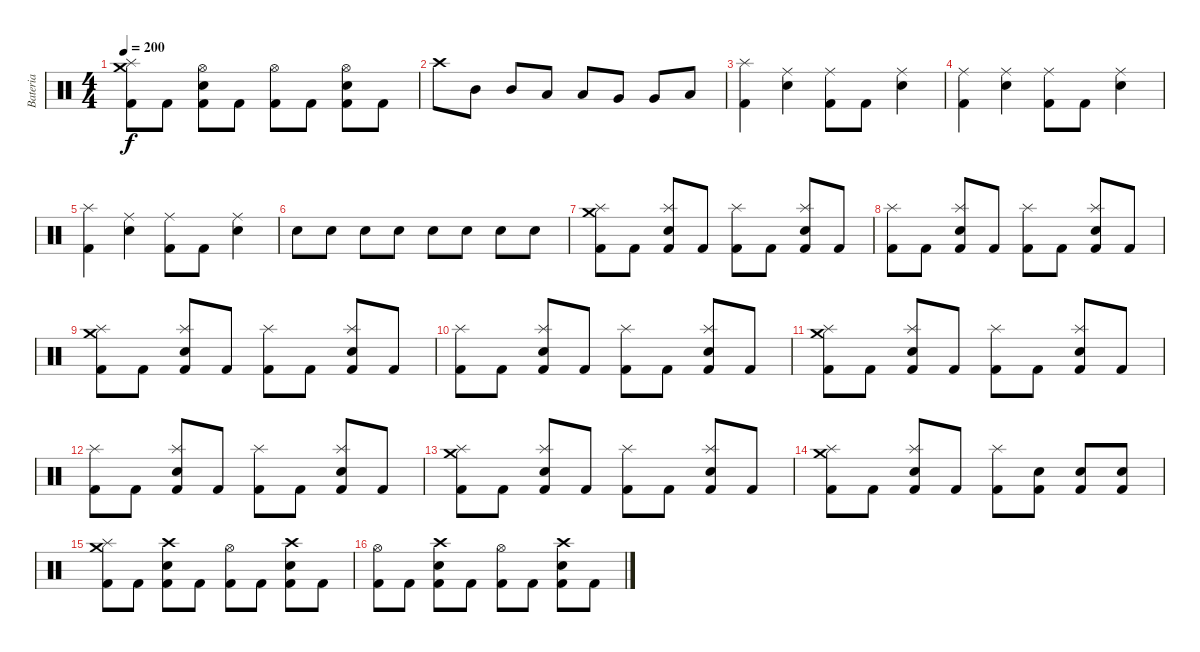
\track ("Bateria " "Bateria ") {instrument percussion}
\staff {score}
\articulation defaults
\ts (4 4)
\tempo 200
\clef neutral
\ks c
("Kick (hit) 2" "Crash medium (hit)" "Splash (hit)").8{dy f} "Kick (hit) 2".8 ("Kick (hit) 2" "Electric Snare (hit)" "Hi-Hat (open)").8 "Kick (hit) 2".8 ("Kick (hit) 2" "Hi-Hat (open)").8 "Kick (hit) 2".8 ("Kick (hit) 2" "Electric Snare (hit)" "Hi-Hat (open)").8 "Kick (hit) 2".8 |
"Crash high (hit)".8 "Mid Tom (hit)".8 "Mid Tom (hit)".8 "Low Tom (hit)".8 "Low Tom (hit)".8 "Very Low Tom (hit)".8 "Very Low Tom (hit)".8 "Low Floor Tom (hit)".8 |
("Kick (hit) 2" "Splash (hit)").4 ("Electric Snare (hit)" "Ride (middle)").4 ("Kick (hit) 2" "Ride (middle)").8 "Kick (hit) 2".8 ("Electric Snare (hit)" "Ride (middle)").4 |
("Kick (hit) 2" "Ride (middle)").4 ("Electric Snare (hit)" "Ride (middle)").4 ("Kick (hit) 2" "Ride (middle)").8 "Kick (hit) 2".8 ("Electric Snare (hit)" "Ride (middle)").4 |
("Kick (hit) 2" "Splash (hit)").4 ("Electric Snare (hit)" "Ride (middle)").4 ("Kick (hit) 2" "Ride (middle)").8 "Kick (hit) 2".8 ("Electric Snare (hit)" "Ride (middle)").4 |
"Electric Snare (hit)".8 "Electric Snare (hit)".8 "Electric Snare (hit)".8 "Electric Snare (hit)".8 "Electric Snare (hit)".8 "Electric Snare (hit)".8 "Electric Snare (hit)".8 "Electric Snare (hit)".8 |
("Kick (hit) 2" "Crash medium (hit)" "Splash (hit)").8 "Kick (hit) 2".8 ("Kick (hit) 2" "Electric Snare (hit)" "Splash (hit)").8 "Kick (hit) 2".8 ("Kick (hit) 2" "Splash (hit)").8 "Kick (hit) 2".8 ("Kick (hit) 2" "Electric Snare (hit)" "Splash (hit)").8 "Kick (hit) 2".8 |
("Kick (hit) 2" "Splash (hit)").8 "Kick (hit) 2".8 ("Kick (hit) 2" "Electric Snare (hit)" "Splash (hit)").8 "Kick (hit) 2".8 ("Kick (hit) 2" "Splash (hit)").8 "Kick (hit) 2".8 ("Kick (hit) 2" "Electric Snare (hit)" "Splash (hit)").8 "Kick (hit) 2".8 |
("Kick (hit) 2" "Crash medium (hit)" "Splash (hit)").8 "Kick (hit) 2".8 ("Kick (hit) 2" "Electric Snare (hit)" "Splash (hit)").8 "Kick (hit) 2".8 ("Kick (hit) 2" "Splash (hit)").8 "Kick (hit) 2".8 ("Kick (hit) 2" "Electric Snare (hit)" "Splash (hit)").8 "Kick (hit) 2".8 |
("Kick (hit) 2" "Splash (hit)").8 "Kick (hit) 2".8 ("Kick (hit) 2" "Electric Snare (hit)" "Splash (hit)").8 "Kick (hit) 2".8 ("Kick (hit) 2" "Splash (hit)").8 "Kick (hit) 2".8 ("Kick (hit) 2" "Electric Snare (hit)" "Splash (hit)").8 "Kick (hit) 2".8 |
("Kick (hit) 2" "Crash medium (hit)" "Splash (hit)").8 "Kick (hit) 2".8 ("Kick (hit) 2" "Electric Snare (hit)" "Splash (hit)").8 "Kick (hit) 2".8 ("Kick (hit) 2" "Splash (hit)").8 "Kick (hit) 2".8 ("Kick (hit) 2" "Electric Snare (hit)" "Splash (hit)").8 "Kick (hit) 2".8 |
("Kick (hit) 2" "Splash (hit)").8 "Kick (hit) 2".8 ("Kick (hit) 2" "Electric Snare (hit)" "Splash (hit)").8 "Kick (hit) 2".8 ("Kick (hit) 2" "Splash (hit)").8 "Kick (hit) 2".8 ("Kick (hit) 2" "Electric Snare (hit)" "Splash (hit)").8 "Kick (hit) 2".8 |
("Kick (hit) 2" "Crash medium (hit)" "Splash (hit)").8 "Kick (hit) 2".8 ("Kick (hit) 2" "Electric Snare (hit)" "Splash (hit)").8 "Kick (hit) 2".8 ("Kick (hit) 2" "Splash (hit)").8 "Kick (hit) 2".8 ("Kick (hit) 2" "Electric Snare (hit)" "Splash (hit)").8 "Kick (hit) 2".8 |
("Kick (hit) 2" "Splash (hit)" "Crash medium (hit)").8 "Kick (hit) 2".8 ("Kick (hit) 2" "Electric Snare (hit)" "Splash (hit)").8 "Kick (hit) 2".8 ("Kick (hit) 2" "Splash (hit)").8 ("Kick (hit) 2" "Electric Snare (hit)").8 ("Kick (hit) 2" "Electric Snare (hit)").8 ("Kick (hit) 2" "Electric Snare (hit)").8 |
("Kick (hit) 2" "Crash medium (hit)" "Splash (hit)").8 "Kick (hit) 2".8 ("Kick (hit) 2" "Electric Snare (hit)" "Crash high (hit)").8 "Kick (hit) 2".8 ("Kick (hit) 2" "Hi-Hat (open)").8 "Kick (hit) 2".8 ("Kick (hit) 2" "Electric Snare (hit)" "Crash high (hit)").8 "Kick (hit) 2".8 |
("Kick (hit) 2" "Hi-Hat (open)").8 "Kick (hit) 2".8 ("Kick (hit) 2" "Electric Snare (hit)" "Crash high (hit)").8 "Kick (hit) 2".8 ("Kick (hit) 2" "Hi-Hat (open)").8 "Kick (hit) 2".8 ("Kick (hit) 2" "Electric Snare (hit)" "Crash high (hit)").8 "Kick (hit) 2".8
